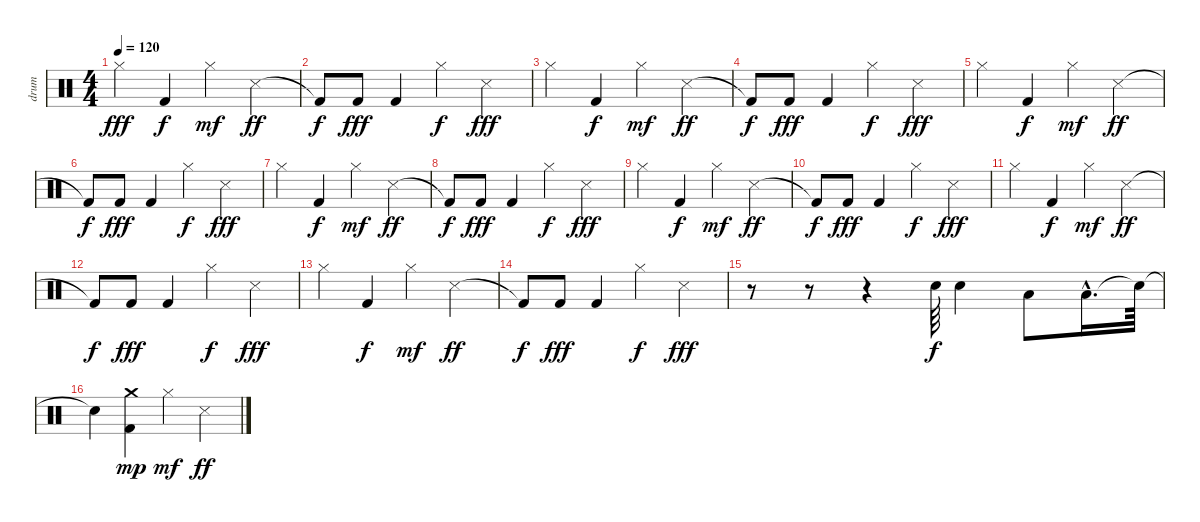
\track ("drum" "drum") {instrument percussion}
\staff {score}
\articulation defaults
\ts (4 4)
\tempo 120
\clef neutral
\ks c "Hi-Hat (closed)".4{dy fff} "Kick (hit) 2".4{dy f} "Hi-Hat (closed)".4{dy mf} "Metronome (hit)".4{dy ff}
|
"Kick (hit) 2"{t}.8{dy f} "Kick (hit) 2".8{dy fff} "Kick (hit) 2".4 "Hi-Hat (closed)".4{dy f} "Metronome (hit)".4{dy fff} |
"Hi-Hat (closed)".4 "Kick (hit) 2".4{dy f} "Hi-Hat (closed)".4{dy mf} "Metronome (hit)".4{dy ff} |
"Kick (hit) 2"{t}.8{dy f} "Kick (hit) 2".8{dy fff} "Kick (hit) 2".4 "Hi-Hat (closed)".4{dy f} "Metronome (hit)".4{dy fff} |
"Hi-Hat (closed)".4 "Kick (hit) 2".4{dy f} "Hi-Hat (closed)".4{dy mf} "Metronome (hit)".4{dy ff} |
"Kick (hit) 2"{t}.8{dy f} "Kick (hit) 2".8{dy fff} "Kick (hit) 2".4 "Hi-Hat (closed)".4{dy f} "Metronome (hit)".4{dy fff} |
"Hi-Hat (closed)".4 "Kick (hit) 2".4{dy f} "Hi-Hat (closed)".4{dy mf} "Metronome (hit)".4{dy ff} |
"Kick (hit) 2"{t}.8{dy f} "Kick (hit) 2".8{dy fff} "Kick (hit) 2".4 "Hi-Hat (closed)".4{dy f} "Metronome (hit)".4{dy fff} |
"Hi-Hat (closed)".4 "Kick (hit) 2".4{dy f} "Hi-Hat (closed)".4{dy mf} "Metronome (hit)".4{dy ff} |
"Kick (hit) 2"{t}.8{dy f} "Kick (hit) 2".8{dy fff} "Kick (hit) 2".4 "Hi-Hat (closed)".4{dy f} "Metronome (hit)".4{dy fff} |
"Hi-Hat (closed)".4 "Kick (hit) 2".4{dy f} "Hi-Hat (closed)".4{dy mf} "Metronome (hit)".4{dy ff} |
"Kick (hit) 2"{t}.8{dy f} "Kick (hit) 2".8{dy fff} "Kick (hit) 2".4 "Hi-Hat (closed)".4{dy f} "Metronome (hit)".4{dy fff} |
"Hi-Hat (closed)".4 "Kick (hit) 2".4{dy f} "Hi-Hat (closed)".4{dy mf} "Metronome (hit)".4{dy ff} |
"Kick (hit) 2"{t}.8{dy f} "Kick (hit) 2".8{dy fff} "Kick (hit) 2".4 "Hi-Hat (closed)".4{dy f} "Metronome (hit)".4{dy fff} |
r.8 r.8 r.4 "Snare (hit) 2".64{dy f} "Snare (hit) 2".4 "Low Floor Tom (hit)".8 "Low Floor Tom (hit)"{hac}.16{d} "Snare (hit)"{t}.64 |
"Snare (hit)"{t}.4 ("Crash medium (hit)" "Kick (hit) 2").4{dy mp} "Hi-Hat (closed)".4{dy mf} "Metronome (hit)".4{dy ff}
